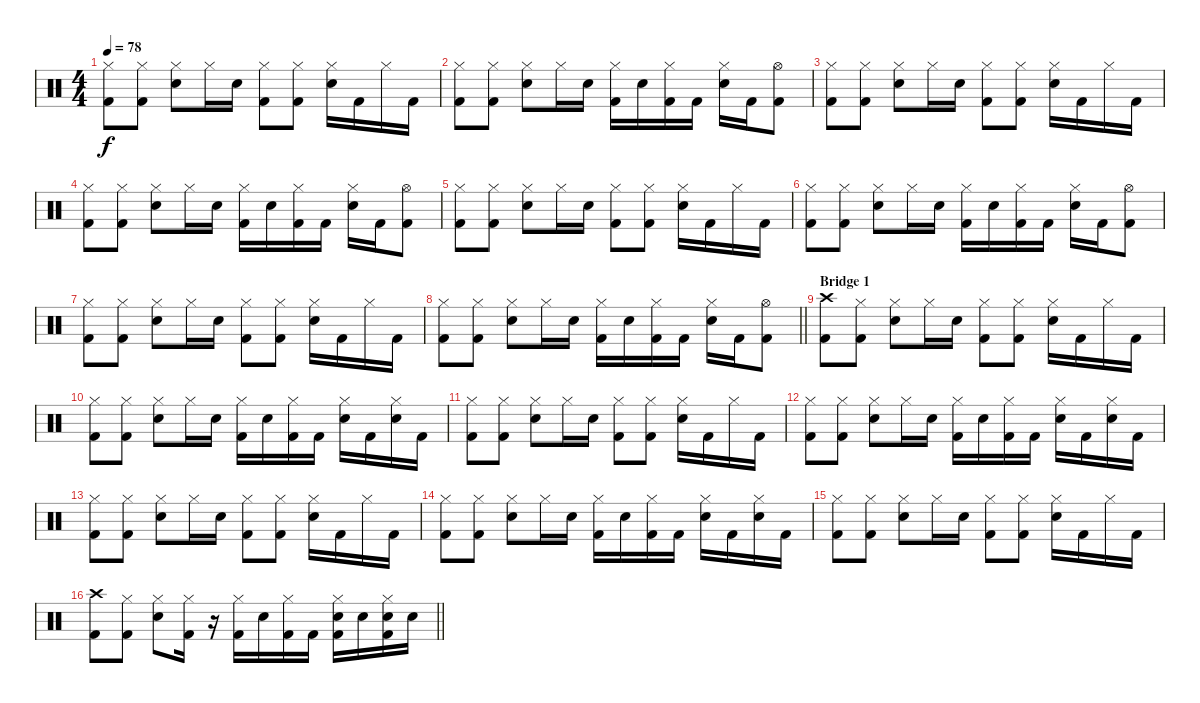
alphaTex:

\track "" {instrument percussion}
\staff {score}
\articulation defaults
\ts (4 4)
\tempo 78
\clef neutral
\ks c
("Hi-Hat (closed)" "Kick (hit) 2").8{dy f} ("Hi-Hat (closed)" "Kick (hit) 2").8 ("Hi-Hat (closed)" "Snare (hit) 2").8 "Hi-Hat (closed)".16 "Snare (hit) 2".16 ("Hi-Hat (closed)" "Kick (hit) 2").8 ("Hi-Hat (closed)" "Kick (hit) 2").8 ("Hi-Hat (closed)" "Snare (hit) 2").16 "Kick (hit) 2".16 "Hi-Hat (closed)".16 "Kick (hit) 2".16 |
("Hi-Hat (closed)" "Kick (hit) 2").8 ("Hi-Hat (closed)" "Kick (hit) 2").8 ("Hi-Hat (closed)" "Snare (hit) 2").8 "Hi-Hat (closed)".16 "Snare (hit) 2".16 ("Hi-Hat (closed)" "Kick (hit) 2").16 "Snare (hit) 2".16 ("Hi-Hat (closed)" "Kick (hit) 2").16 "Kick (hit) 2".16 ("Hi-Hat (closed)" "Snare (hit) 2").16 "Kick (hit) 2".16 ("Hi-Hat (open)" "Kick (hit) 2").8 |
("Hi-Hat (closed)" "Kick (hit) 2").8 ("Hi-Hat (closed)" "Kick (hit) 2").8 ("Hi-Hat (closed)" "Snare (hit) 2").8 "Hi-Hat (closed)".16 "Snare (hit) 2".16 ("Hi-Hat (closed)" "Kick (hit) 2").8 ("Hi-Hat (closed)" "Kick (hit) 2").8 ("Hi-Hat (closed)" "Snare (hit) 2").16 "Kick (hit) 2".16 "Hi-Hat (closed)".16 "Kick (hit) 2".16 |
("Hi-Hat (closed)" "Kick (hit) 2").8 ("Hi-Hat (closed)" "Kick (hit) 2").8 ("Hi-Hat (closed)" "Snare (hit) 2").8 "Hi-Hat (closed)".16 "Snare (hit) 2".16 ("Hi-Hat (closed)" "Kick (hit) 2").16 "Snare (hit) 2".16 ("Hi-Hat (closed)" "Kick (hit) 2").16 "Kick (hit) 2".16 ("Hi-Hat (closed)" "Snare (hit) 2").16 "Kick (hit) 2".16 ("Hi-Hat (open)" "Kick (hit) 2").8 |
("Hi-Hat (closed)" "Kick (hit) 2").8 ("Hi-Hat (closed)" "Kick (hit) 2").8 ("Hi-Hat (closed)" "Snare (hit) 2").8 "Hi-Hat (closed)".16 "Snare (hit) 2".16 ("Hi-Hat (closed)" "Kick (hit) 2").8 ("Hi-Hat (closed)" "Kick (hit) 2").8 ("Hi-Hat (closed)" "Snare (hit) 2").16 "Kick (hit) 2".16 "Hi-Hat (closed)".16 "Kick (hit) 2".16 |
("Hi-Hat (closed)" "Kick (hit) 2").8 ("Hi-Hat (closed)" "Kick (hit) 2").8 ("Hi-Hat (closed)" "Snare (hit) 2").8 "Hi-Hat (closed)".16 "Snare (hit) 2".16 ("Hi-Hat (closed)" "Kick (hit) 2").16 "Snare (hit) 2".16 ("Hi-Hat (closed)" "Kick (hit) 2").16 "Kick (hit) 2".16 ("Hi-Hat (closed)" "Snare (hit) 2").16 "Kick (hit) 2".16 ("Hi-Hat (open)" "Kick (hit) 2").8 |
("Hi-Hat (closed)" "Kick (hit) 2").8 ("Hi-Hat (closed)" "Kick (hit) 2").8 ("Hi-Hat (closed)" "Snare (hit) 2").8 "Hi-Hat (closed)".16 "Snare (hit) 2".16 ("Hi-Hat (closed)" "Kick (hit) 2").8 ("Hi-Hat (closed)" "Kick (hit) 2").8 ("Hi-Hat (closed)" "Snare (hit) 2").16 "Kick (hit) 2".16 "Hi-Hat (closed)".16 "Kick (hit) 2".16 |
\barLineRight lightlight
("Hi-Hat (closed)" "Kick (hit) 2").8 ("Hi-Hat (closed)" "Kick (hit) 2").8 ("Hi-Hat (closed)" "Snare (hit) 2").8 "Hi-Hat (closed)".16 "Snare (hit) 2".16 ("Hi-Hat (closed)" "Kick (hit) 2").16 "Snare (hit) 2".16 ("Hi-Hat (closed)" "Kick (hit) 2").16 "Kick (hit) 2".16 ("Hi-Hat (closed)" "Snare (hit) 2").16 "Kick (hit) 2".16 ("Hi-Hat (open)" "Kick (hit) 2").8 |
\section ("" "Bridge 1")
("Crash high (hit)" "Kick (hit) 2").8 ("Hi-Hat (closed)" "Kick (hit) 2").8 ("Hi-Hat (closed)" "Snare (hit) 2").8 "Hi-Hat (closed)".16 "Snare (hit) 2".16 ("Hi-Hat (closed)" "Kick (hit) 2").8 ("Hi-Hat (closed)" "Kick (hit) 2").8 ("Hi-Hat (closed)" "Snare (hit) 2").16 "Kick (hit) 2".16 "Hi-Hat (closed)".16 "Kick (hit) 2".16 |
("Hi-Hat (closed)" "Kick (hit) 2").8 ("Hi-Hat (closed)" "Kick (hit) 2").8 ("Hi-Hat (closed)" "Snare (hit) 2").8 "Hi-Hat (closed)".16 "Snare (hit) 2".16 ("Hi-Hat (closed)" "Kick (hit) 2").16 "Snare (hit) 2".16 ("Hi-Hat (closed)" "Kick (hit) 2").16 "Kick (hit) 2".16 ("Hi-Hat (closed)" "Snare (hit) 2").16 "Kick (hit) 2".16 ("Hi-Hat (closed)" "Snare (hit) 2").16 "Kick (hit) 2".16 |
("Hi-Hat (closed)" "Kick (hit) 2").8 ("Hi-Hat (closed)" "Kick (hit) 2").8 ("Hi-Hat (closed)" "Snare (hit) 2").8 "Hi-Hat (closed)".16 "Snare (hit) 2".16 ("Hi-Hat (closed)" "Kick (hit) 2").8 ("Hi-Hat (closed)" "Kick (hit) 2").8 ("Hi-Hat (closed)" "Snare (hit) 2").16 "Kick (hit) 2".16 "Hi-Hat (closed)".16 "Kick (hit) 2".16 |
("Hi-Hat (closed)" "Kick (hit) 2").8 ("Hi-Hat (closed)" "Kick (hit) 2").8 ("Hi-Hat (closed)" "Snare (hit) 2").8 "Hi-Hat (closed)".16 "Snare (hit) 2".16 ("Hi-Hat (closed)" "Kick (hit) 2").16 "Snare (hit) 2".16 ("Hi-Hat (closed)" "Kick (hit) 2").16 "Kick (hit) 2".16 ("Hi-Hat (closed)" "Snare (hit) 2").16 "Kick (hit) 2".16 ("Hi-Hat (closed)" "Snare (hit) 2").16 "Kick (hit) 2".16 |
("Hi-Hat (closed)" "Kick (hit) 2").8 ("Hi-Hat (closed)" "Kick (hit) 2").8 ("Hi-Hat (closed)" "Snare (hit) 2").8 "Hi-Hat (closed)".16 "Snare (hit) 2".16 ("Hi-Hat (closed)" "Kick (hit) 2").8 ("Hi-Hat (closed)" "Kick (hit) 2").8 ("Hi-Hat (closed)" "Snare (hit) 2").16 "Kick (hit) 2".16 "Hi-Hat (closed)".16 "Kick (hit) 2".16 |
("Hi-Hat (closed)" "Kick (hit) 2").8 ("Hi-Hat (closed)" "Kick (hit) 2").8 ("Hi-Hat (closed)" "Snare (hit) 2").8 "Hi-Hat (closed)".16 "Snare (hit) 2".16 ("Hi-Hat (closed)" "Kick (hit) 2").16 "Snare (hit) 2".16 ("Hi-Hat (closed)" "Kick (hit) 2").16 "Kick (hit) 2".16 ("Hi-Hat (closed)" "Snare (hit) 2").16 "Kick (hit) 2".16 ("Hi-Hat (closed)" "Snare (hit) 2").16 "Kick (hit) 2".16 |
("Hi-Hat (closed)" "Kick (hit) 2").8 ("Hi-Hat (closed)" "Kick (hit) 2").8 ("Hi-Hat (closed)" "Snare (hit) 2").8 "Hi-Hat (closed)".16 "Snare (hit) 2".16 ("Hi-Hat (closed)" "Kick (hit) 2").8 ("Hi-Hat (closed)" "Kick (hit) 2").8 ("Hi-Hat (closed)" "Snare (hit) 2").16 "Kick (hit) 2".16 "Hi-Hat (closed)".16 "Kick (hit) 2".16 |
\barLineRight lightlight
("Crash high (hit)" "Kick (hit) 2").8 ("Hi-Hat (closed)" "Kick (hit) 2").8 ("Hi-Hat (closed)" "Snare (hit) 2").8 ("Hi-Hat (closed)" "Kick (hit) 2").16 r.16 ("Hi-Hat (closed)" "Kick (hit) 2").16 "Snare (hit) 2".16 ("Hi-Hat (closed)" "Kick (hit) 2").16 "Kick (hit) 2".16 ("Hi-Hat (closed)" "Snare (hit) 2" "Kick (hit) 2").16 "Snare (hit) 2".16 ("Hi-Hat (closed)" "Snare (hit) 2" "Kick (hit) 2").16 "Snare (hit) 2".16
